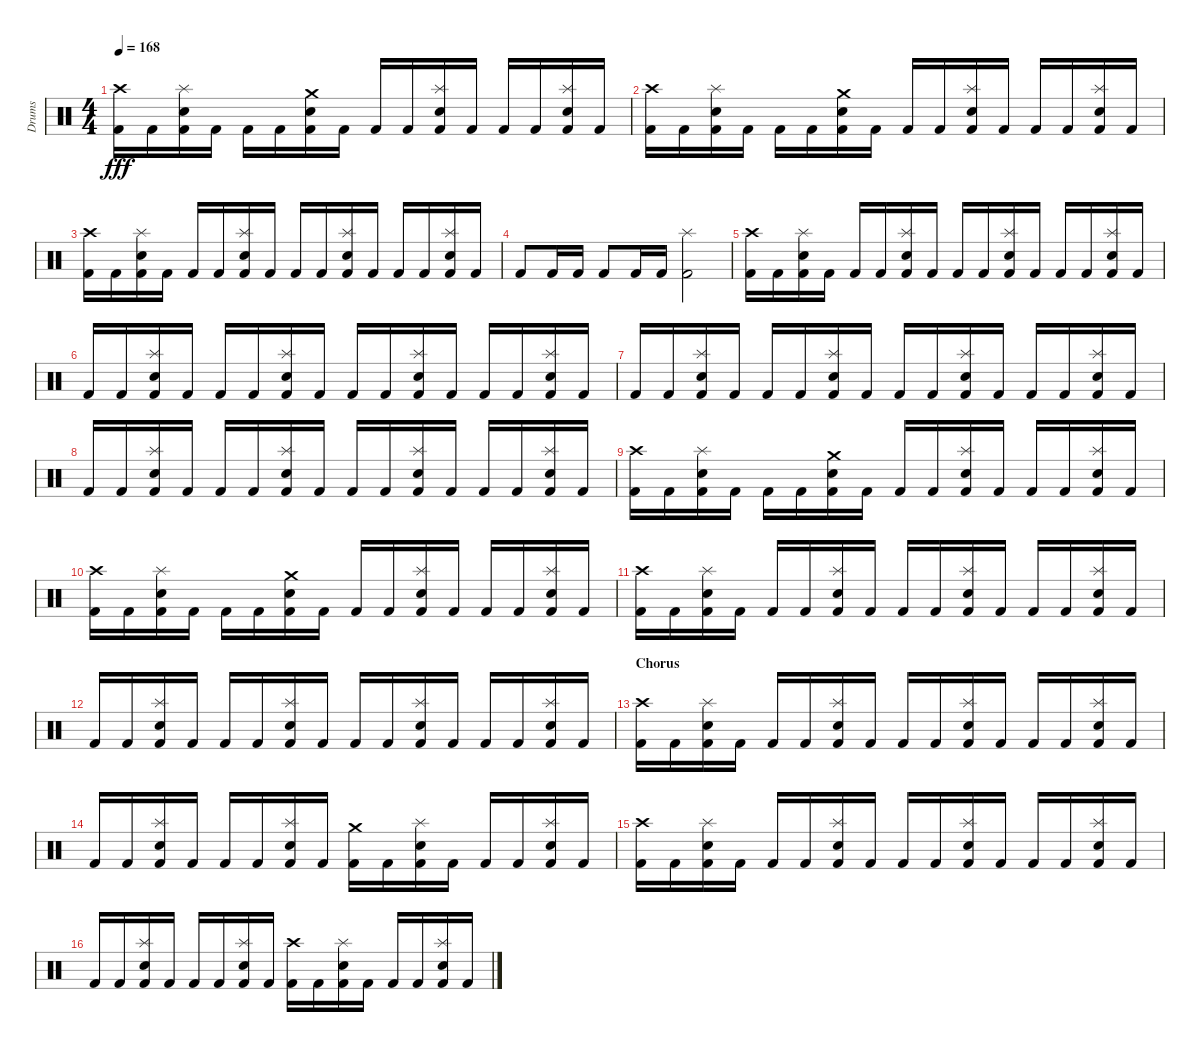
\track ("Drums" "Drums") {instrument percussion}
\staff {score}
\articulation defaults
\ts (4 4)
\tempo 168
\clef neutral
\ks c
("Crash high (hit)" "Kick (hit) 2").16{dy fff} "Kick (hit) 2".16 ("Splash (hit)" "Snare (hit) 2" "Kick (hit) 2").16 "Kick (hit) 2".16 "Kick (hit) 2".16 "Kick (hit) 2".16 ("Crash medium (hit)" "Snare (hit) 2" "Kick (hit) 2").16 "Kick (hit) 2".16 "Kick (hit) 2".16 "Kick (hit) 2".16 ("Splash (hit)" "Snare (hit) 2" "Kick (hit) 2").16 "Kick (hit) 2".16 "Kick (hit) 2".16 "Kick (hit) 2".16 ("Splash (hit)" "Snare (hit) 2" "Kick (hit) 2").16 "Kick (hit) 2".16 |
("Crash high (hit)" "Kick (hit) 2").16 "Kick (hit) 2".16 ("Splash (hit)" "Snare (hit) 2" "Kick (hit) 2").16 "Kick (hit) 2".16 "Kick (hit) 2".16 "Kick (hit) 2".16 ("Crash medium (hit)" "Snare (hit) 2" "Kick (hit) 2").16 "Kick (hit) 2".16 "Kick (hit) 2".16 "Kick (hit) 2".16 ("Splash (hit)" "Snare (hit) 2" "Kick (hit) 2").16 "Kick (hit) 2".16 "Kick (hit) 2".16 "Kick (hit) 2".16 ("Splash (hit)" "Snare (hit) 2" "Kick (hit) 2").16 "Kick (hit) 2".16 |
("Crash high (hit)" "Kick (hit) 2").16 "Kick (hit) 2".16 ("Splash (hit)" "Snare (hit) 2" "Kick (hit) 2").16 "Kick (hit) 2".16 "Kick (hit) 2".16 "Kick (hit) 2".16 ("Splash (hit)" "Snare (hit) 2" "Kick (hit) 2").16 "Kick (hit) 2".16 "Kick (hit) 2".16 "Kick (hit) 2".16 ("Splash (hit)" "Snare (hit) 2" "Kick (hit) 2").16 "Kick (hit) 2".16 "Kick (hit) 2".16 "Kick (hit) 2".16 ("Splash (hit)" "Snare (hit) 2" "Kick (hit) 2").16 "Kick (hit) 2".16 |
"Kick (hit) 2".8 "Kick (hit) 2".16 "Kick (hit) 2".16 "Kick (hit) 2".8 "Kick (hit) 2".16 "Kick (hit) 2".16 ("Splash (hit)" "Kick (hit) 2").2 |
("Crash high (hit)" "Kick (hit) 2").16 "Kick (hit) 2".16 ("Splash (hit)" "Snare (hit) 2" "Kick (hit) 2").16 "Kick (hit) 2".16 "Kick (hit) 2".16 "Kick (hit) 2".16 ("Splash (hit)" "Snare (hit) 2" "Kick (hit) 2").16 "Kick (hit) 2".16 "Kick (hit) 2".16 "Kick (hit) 2".16 ("Splash (hit)" "Snare (hit) 2" "Kick (hit) 2").16 "Kick (hit) 2".16 "Kick (hit) 2".16 "Kick (hit) 2".16 ("Splash (hit)" "Snare (hit) 2" "Kick (hit) 2").16 "Kick (hit) 2".16 |
"Kick (hit) 2".16 "Kick (hit) 2".16 ("Splash (hit)" "Snare (hit) 2" "Kick (hit) 2").16 "Kick (hit) 2".16 "Kick (hit) 2".16 "Kick (hit) 2".16 ("Splash (hit)" "Snare (hit) 2" "Kick (hit) 2").16 "Kick (hit) 2".16 "Kick (hit) 2".16 "Kick (hit) 2".16 ("Splash (hit)" "Snare (hit) 2" "Kick (hit) 2").16 "Kick (hit) 2".16 "Kick (hit) 2".16 "Kick (hit) 2".16 ("Splash (hit)" "Snare (hit) 2" "Kick (hit) 2").16 "Kick (hit) 2".16 |
"Kick (hit) 2".16 "Kick (hit) 2".16 ("Splash (hit)" "Snare (hit) 2" "Kick (hit) 2").16 "Kick (hit) 2".16 "Kick (hit) 2".16 "Kick (hit) 2".16 ("Splash (hit)" "Snare (hit) 2" "Kick (hit) 2").16 "Kick (hit) 2".16 "Kick (hit) 2".16 "Kick (hit) 2".16 ("Splash (hit)" "Snare (hit) 2" "Kick (hit) 2").16 "Kick (hit) 2".16 "Kick (hit) 2".16 "Kick (hit) 2".16 ("Splash (hit)" "Snare (hit) 2" "Kick (hit) 2").16 "Kick (hit) 2".16 |
"Kick (hit) 2".16 "Kick (hit) 2".16 ("Splash (hit)" "Snare (hit) 2" "Kick (hit) 2").16 "Kick (hit) 2".16 "Kick (hit) 2".16 "Kick (hit) 2".16 ("Splash (hit)" "Snare (hit) 2" "Kick (hit) 2").16 "Kick (hit) 2".16 "Kick (hit) 2".16 "Kick (hit) 2".16 ("Splash (hit)" "Snare (hit) 2" "Kick (hit) 2").16 "Kick (hit) 2".16 "Kick (hit) 2".16 "Kick (hit) 2".16 ("Splash (hit)" "Snare (hit) 2" "Kick (hit) 2").16 "Kick (hit) 2".16 |
("Crash high (hit)" "Kick (hit) 2").16 "Kick (hit) 2".16 ("Splash (hit)" "Snare (hit) 2" "Kick (hit) 2").16 "Kick (hit) 2".16 "Kick (hit) 2".16 "Kick (hit) 2".16 ("Crash medium (hit)" "Snare (hit) 2" "Kick (hit) 2").16 "Kick (hit) 2".16 "Kick (hit) 2".16 "Kick (hit) 2".16 ("Splash (hit)" "Snare (hit) 2" "Kick (hit) 2").16 "Kick (hit) 2".16 "Kick (hit) 2".16 "Kick (hit) 2".16 ("Splash (hit)" "Snare (hit) 2" "Kick (hit) 2").16 "Kick (hit) 2".16 |
("Crash high (hit)" "Kick (hit) 2").16 "Kick (hit) 2".16 ("Splash (hit)" "Snare (hit) 2" "Kick (hit) 2").16 "Kick (hit) 2".16 "Kick (hit) 2".16 "Kick (hit) 2".16 ("Crash medium (hit)" "Snare (hit) 2" "Kick (hit) 2").16 "Kick (hit) 2".16 "Kick (hit) 2".16 "Kick (hit) 2".16 ("Splash (hit)" "Snare (hit) 2" "Kick (hit) 2").16 "Kick (hit) 2".16 "Kick (hit) 2".16 "Kick (hit) 2".16 ("Splash (hit)" "Snare (hit) 2" "Kick (hit) 2").16 "Kick (hit) 2".16 |
("Crash high (hit)" "Kick (hit) 2").16 "Kick (hit) 2".16 ("Splash (hit)" "Snare (hit) 2" "Kick (hit) 2").16 "Kick (hit) 2".16 "Kick (hit) 2".16 "Kick (hit) 2".16 ("Splash (hit)" "Snare (hit) 2" "Kick (hit) 2").16 "Kick (hit) 2".16 "Kick (hit) 2".16 "Kick (hit) 2".16 ("Splash (hit)" "Snare (hit) 2" "Kick (hit) 2").16 "Kick (hit) 2".16 "Kick (hit) 2".16 "Kick (hit) 2".16 ("Splash (hit)" "Snare (hit) 2" "Kick (hit) 2").16 "Kick (hit) 2".16 |
"Kick (hit) 2".16 "Kick (hit) 2".16 ("Splash (hit)" "Snare (hit) 2" "Kick (hit) 2").16 "Kick (hit) 2".16 "Kick (hit) 2".16 "Kick (hit) 2".16 ("Splash (hit)" "Snare (hit) 2" "Kick (hit) 2").16 "Kick (hit) 2".16 "Kick (hit) 2".16 "Kick (hit) 2".16 ("Splash (hit)" "Snare (hit) 2" "Kick (hit) 2").16 "Kick (hit) 2".16 "Kick (hit) 2".16 "Kick (hit) 2".16 ("Splash (hit)" "Snare (hit) 2" "Kick (hit) 2").16 "Kick (hit) 2".16 |
\section ("" "Chorus")
("Crash high (hit)" "Kick (hit) 2").16 "Kick (hit) 2".16 ("Splash (hit)" "Snare (hit) 2" "Kick (hit) 2").16 "Kick (hit) 2".16 "Kick (hit) 2".16 "Kick (hit) 2".16 ("Splash (hit)" "Snare (hit) 2" "Kick (hit) 2").16 "Kick (hit) 2".16 "Kick (hit) 2".16 "Kick (hit) 2".16 ("Splash (hit)" "Snare (hit) 2" "Kick (hit) 2").16 "Kick (hit) 2".16 "Kick (hit) 2".16 "Kick (hit) 2".16 ("Splash (hit)" "Snare (hit) 2" "Kick (hit) 2").16 "Kick (hit) 2".16 |
"Kick (hit) 2".16 "Kick (hit) 2".16 ("Splash (hit)" "Snare (hit) 2" "Kick (hit) 2").16 "Kick (hit) 2".16 "Kick (hit) 2".16 "Kick (hit) 2".16 ("Splash (hit)" "Snare (hit) 2" "Kick (hit) 2").16 "Kick (hit) 2".16 ("Crash medium (hit)" "Kick (hit) 2").16 "Kick (hit) 2".16 ("Splash (hit)" "Snare (hit) 2" "Kick (hit) 2").16 "Kick (hit) 2".16 "Kick (hit) 2".16 "Kick (hit) 2".16 ("Splash (hit)" "Snare (hit) 2" "Kick (hit) 2").16 "Kick (hit) 2".16 |
("Crash high (hit)" "Kick (hit) 2").16 "Kick (hit) 2".16 ("Splash (hit)" "Snare (hit) 2" "Kick (hit) 2").16 "Kick (hit) 2".16 "Kick (hit) 2".16 "Kick (hit) 2".16 ("Splash (hit)" "Snare (hit) 2" "Kick (hit) 2").16 "Kick (hit) 2".16 "Kick (hit) 2".16 "Kick (hit) 2".16 ("Splash (hit)" "Snare (hit) 2" "Kick (hit) 2").16 "Kick (hit) 2".16 "Kick (hit) 2".16 "Kick (hit) 2".16 ("Splash (hit)" "Snare (hit) 2" "Kick (hit) 2").16 "Kick (hit) 2".16 |
"Kick (hit) 2".16 "Kick (hit) 2".16 ("Splash (hit)" "Snare (hit) 2" "Kick (hit) 2").16 "Kick (hit) 2".16 "Kick (hit) 2".16 "Kick (hit) 2".16 ("Splash (hit)" "Snare (hit) 2" "Kick (hit) 2").16 "Kick (hit) 2".16 ("Crash high (hit)" "Kick (hit) 2").16 "Kick (hit) 2".16 ("Splash (hit)" "Snare (hit) 2" "Kick (hit) 2").16 "Kick (hit) 2".16 "Kick (hit) 2".16 "Kick (hit) 2".16 ("Splash (hit)" "Snare (hit) 2" "Kick (hit) 2").16 "Kick (hit) 2".16
